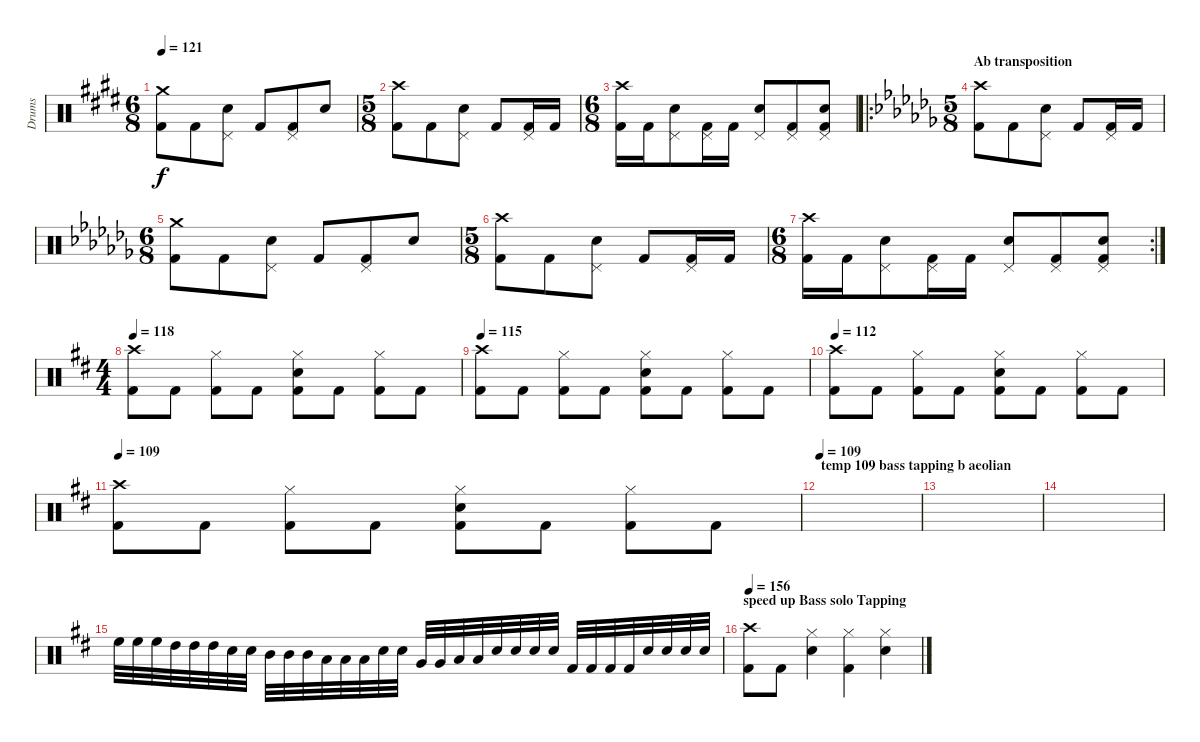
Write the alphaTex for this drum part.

\track ("Drums" "Drums") {instrument percussion}
\staff {score}
\articulation defaults
\ts (6 8)
\tempo 121
\clef neutral
\ks c#minor
("Crash medium (hit)" "Kick (hit) 2").8{dy f} "Kick (hit) 2".8 ("Pedal Hi-Hat (hit)" "Electric Snare (hit)").8 "Kick (hit) 2".8 ("Pedal Hi-Hat (hit)" "Kick (hit) 2").8 "Electric Snare (hit)".8 |
\ts (5 8)
("Crash high (hit)" "Kick (hit) 2").8 "Kick (hit) 2".8 ("Pedal Hi-Hat (hit)" "Electric Snare (hit)").8 "Kick (hit) 2".8 ("Pedal Hi-Hat (hit)" "Kick (hit) 2").16 "Kick (hit) 2".16 |
\ts (6 8)
("Crash high (hit)" "Kick (hit) 2").16 "Kick (hit) 2".16 ("Pedal Hi-Hat (hit)" "Electric Snare (hit)").8 ("Pedal Hi-Hat (hit)" "Kick (hit) 2").16 "Kick (hit) 2".16 ("Pedal Hi-Hat (hit)" "Electric Snare (hit)").8 ("Pedal Hi-Hat (hit)" "Kick (hit) 2").8 ("Pedal Hi-Hat (hit)" "Electric Snare (hit)" "Kick (hit) 2").8 |
\ro
\ts (5 8)
\section ("" "Ab transposition")
\ks abminor
("Crash high (hit)" "Kick (hit) 2").8 "Kick (hit) 2".8 ("Pedal Hi-Hat (hit)" "Electric Snare (hit)").8 "Kick (hit) 2".8 ("Pedal Hi-Hat (hit)" "Kick (hit) 2").16 "Kick (hit) 2".16 |
\ts (6 8)
("Crash medium (hit)" "Kick (hit) 2").8 "Kick (hit) 2".8 ("Pedal Hi-Hat (hit)" "Electric Snare (hit)").8 "Kick (hit) 2".8 ("Pedal Hi-Hat (hit)" "Kick (hit) 2").8 "Electric Snare (hit)".8 |
\ts (5 8)
("Crash high (hit)" "Kick (hit) 2").8 "Kick (hit) 2".8 ("Pedal Hi-Hat (hit)" "Electric Snare (hit)").8 "Kick (hit) 2".8 ("Pedal Hi-Hat (hit)" "Kick (hit) 2").16 "Kick (hit) 2".16 |
\rc 2
\ts (6 8)
("Crash high (hit)" "Kick (hit) 2").16 "Kick (hit) 2".16 ("Pedal Hi-Hat (hit)" "Electric Snare (hit)").8 ("Pedal Hi-Hat (hit)" "Kick (hit) 2").16 "Kick (hit) 2".16 ("Pedal Hi-Hat (hit)" "Electric Snare (hit)").8 ("Pedal Hi-Hat (hit)" "Kick (hit) 2").8 ("Pedal Hi-Hat (hit)" "Electric Snare (hit)" "Kick (hit) 2").8 |
\ts (4 4)
\tempo 118
\ks bminor
("Crash high (hit)" "Kick (hit) 2").8 "Kick (hit) 2".8 ("Hi-Hat (closed)" "Kick (hit) 2").8 "Kick (hit) 2".8 ("Hi-Hat (closed)" "Electric Snare (hit)" "Kick (hit) 2").8 "Kick (hit) 2".8 ("Hi-Hat (closed)" "Kick (hit) 2").8 "Kick (hit) 2".8 |
\tempo 115
("Crash high (hit)" "Kick (hit) 2").8 "Kick (hit) 2".8 ("Hi-Hat (closed)" "Kick (hit) 2").8 "Kick (hit) 2".8 ("Hi-Hat (closed)" "Electric Snare (hit)" "Kick (hit) 2").8 "Kick (hit) 2".8 ("Hi-Hat (closed)" "Kick (hit) 2").8 "Kick (hit) 2".8 |
\tempo 112
("Crash high (hit)" "Kick (hit) 2").8 "Kick (hit) 2".8 ("Hi-Hat (closed)" "Kick (hit) 2").8 "Kick (hit) 2".8 ("Hi-Hat (closed)" "Electric Snare (hit)" "Kick (hit) 2").8 "Kick (hit) 2".8 ("Hi-Hat (closed)" "Kick (hit) 2").8 "Kick (hit) 2".8 |
\tempo 109
("Crash high (hit)" "Kick (hit) 2").8 "Kick (hit) 2".8 ("Hi-Hat (closed)" "Kick (hit) 2").8 "Kick (hit) 2".8 ("Hi-Hat (closed)" "Electric Snare (hit)" "Kick (hit) 2").8 "Kick (hit) 2".8 ("Hi-Hat (closed)" "Kick (hit) 2").8 "Kick (hit) 2".8 |
\section ("" "temp 109 bass tapping b aeolian")
\tempo 109
|
|
|
"High Floor Tom (hit)".32 "High Floor Tom (hit)".32 "High Floor Tom (hit)".32 "High Tom (hit)".32 "High Tom (hit)".32 "High Tom (hit)".32 "Electric Snare (hit)".32 "Electric Snare (hit)".32 "Mid Tom (hit)".32 "Mid Tom (hit)".32 "Mid Tom (hit)".32 "Low Tom (hit)".32 "Low Tom (hit)".32 "Low Tom (hit)".32 "Electric Snare (hit)".32 "Electric Snare (hit)".32 "Very Low Tom (hit)".32 "Very Low Tom (hit)".32 "Low Floor Tom (hit)".32 "Low Floor Tom (hit)".32 "Electric Snare (hit)".32 "Electric Snare (hit)".32 "Electric Snare (hit)".32 "Electric Snare (hit)".32 "Kick (hit) 2".32 "Kick (hit) 2".32 "Kick (hit) 2".32 "Kick (hit) 2".32 "Electric Snare (hit)".32 "Electric Snare (hit)".32 "Electric Snare (hit)".32 "Electric Snare (hit)".32 |
\section ("" "speed up Bass solo Tapping")
\tempo 156
("Crash high (hit)" "Kick (hit) 2").8 "Kick (hit) 2".8 ("Hi-Hat (closed)" "Electric Snare (hit)").4 ("Hi-Hat (closed)" "Kick (hit) 2").4 ("Hi-Hat (closed)" "Electric Snare (hit)").4
